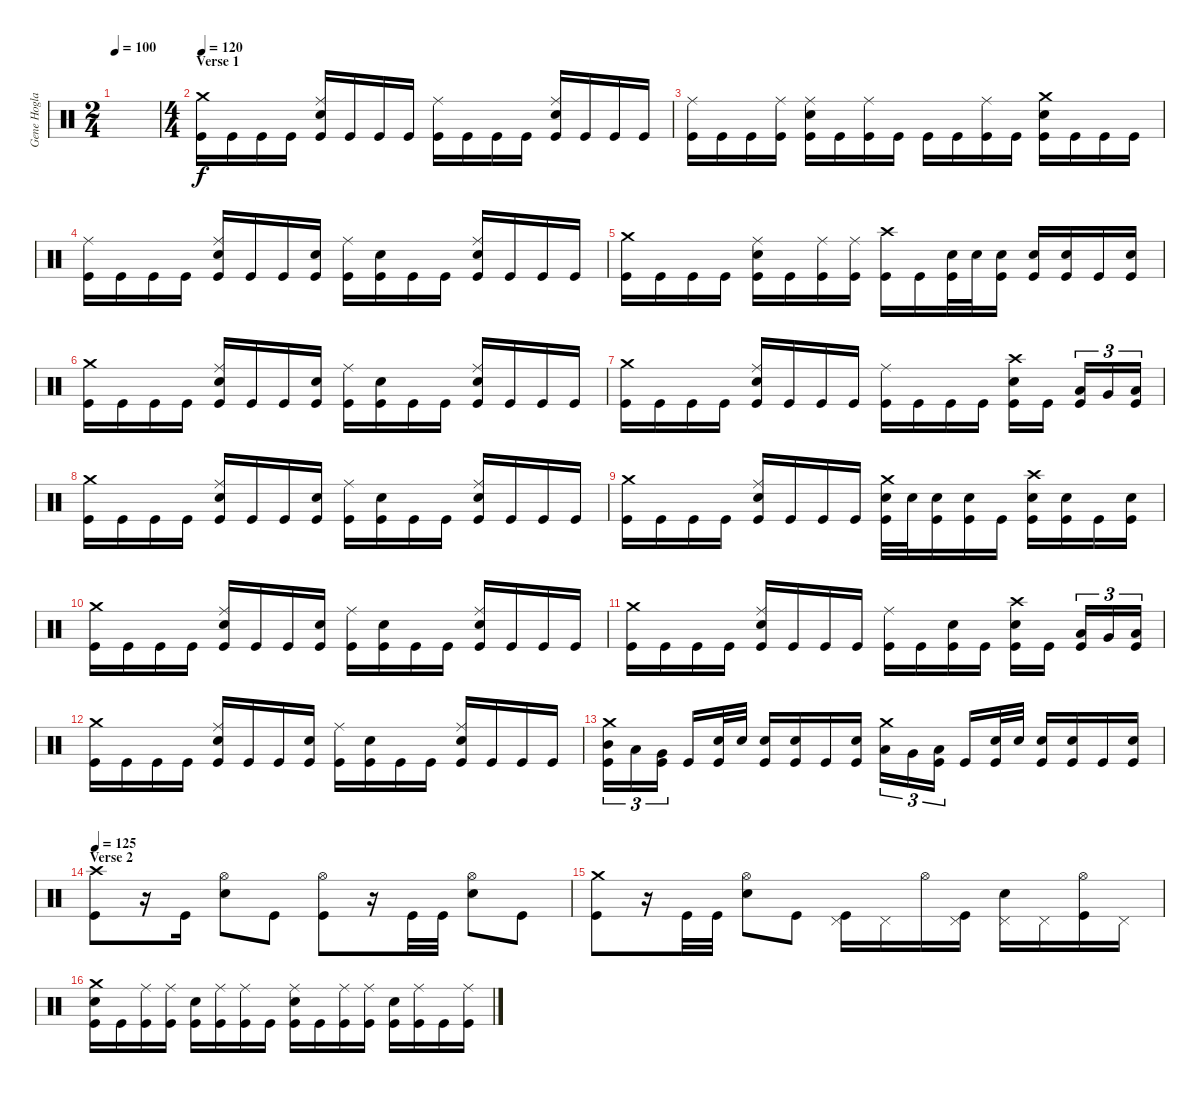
\track ("Gene Hoglan" "Gene Hogla") {instrument percussion}
\staff {score}
\articulation defaults
\ts (2 4)
\tempo 100
\clef neutral
\ks c
|
\ts (4 4)
\section ("" "Verse 1")
\tempo 120
("Crash medium (hit)" "Kick (hit)").16 "Kick (hit)".16 "Kick (hit)".16 "Kick (hit)".16 ("Ride (middle)" "Electric Snare (hit)" "Kick (hit)").16 "Kick (hit)".16 "Kick (hit)".16 "Kick (hit)".16 ("Ride (middle)" "Kick (hit)").16 "Kick (hit)".16 "Kick (hit)".16 "Kick (hit)".16 ("Ride (middle)" "Electric Snare (hit)" "Kick (hit)").16 "Kick (hit)".16 "Kick (hit)".16 "Kick (hit)".16 |
("Ride (middle)" "Kick (hit)").16 "Kick (hit)".16 "Kick (hit)".16 ("Ride (middle)" "Kick (hit)").16 ("Ride (middle)" "Electric Snare (hit)" "Kick (hit)").16 "Kick (hit)".16 ("Ride (middle)" "Kick (hit)").16 "Kick (hit)".16 "Kick (hit)".16 "Kick (hit)".16 ("Ride (middle)" "Kick (hit)").16 "Kick (hit)".16 ("Crash medium (hit)" "Electric Snare (hit)" "Kick (hit)").16 "Kick (hit)".16 "Kick (hit)".16 "Kick (hit)".16 |
("Ride (middle)" "Kick (hit)").16 "Kick (hit)".16 "Kick (hit)".16 "Kick (hit)".16 ("Ride (middle)" "Electric Snare (hit)" "Kick (hit)").16 "Kick (hit)".16 "Kick (hit)".16 ("Electric Snare (hit)" "Kick (hit)").16 ("Ride (middle)" "Kick (hit)").16 ("Electric Snare (hit)" "Kick (hit)").16 "Kick (hit)".16 "Kick (hit)".16 ("Ride (middle)" "Electric Snare (hit)" "Kick (hit)").16 "Kick (hit)".16 "Kick (hit)".16 "Kick (hit)".16 |
("Crash medium (hit)" "Kick (hit)").16 "Kick (hit)".16 "Kick (hit)".16 "Kick (hit)".16 ("Ride (middle)" "Electric Snare (hit)" "Kick (hit)").16 "Kick (hit)".16 ("Ride (middle)" "Kick (hit)").16 ("Ride (middle)" "Kick (hit)").16 ("Crash high (hit)" "Kick (hit)").16 "Kick (hit)".16 ("Electric Snare (hit)" "Kick (hit)").32 "Electric Snare (hit)".32 ("Electric Snare (hit)" "Kick (hit)").16 ("Electric Snare (hit)" "Kick (hit)").16 ("Electric Snare (hit)" "Kick (hit)").16 "Kick (hit)".16 ("Electric Snare (hit)" "Kick (hit)").16 |
("Crash medium (hit)" "Kick (hit)").16 "Kick (hit)".16 "Kick (hit)".16 "Kick (hit)".16 ("Ride (middle)" "Electric Snare (hit)" "Kick (hit)").16 "Kick (hit)".16 "Kick (hit)".16 ("Electric Snare (hit)" "Kick (hit)").16 ("Ride (middle)" "Kick (hit)").16 ("Electric Snare (hit)" "Kick (hit)").16 "Kick (hit)".16 "Kick (hit)".16 ("Ride (middle)" "Electric Snare (hit)" "Kick (hit)").16 "Kick (hit)".16 "Kick (hit)".16 "Kick (hit)".16 |
("Crash medium (hit)" "Kick (hit)").16 "Kick (hit)".16 "Kick (hit)".16 "Kick (hit)".16 ("Ride (middle)" "Electric Snare (hit)" "Kick (hit)").16 "Kick (hit)".16 "Kick (hit)".16 "Kick (hit)".16 ("Ride (middle)" "Kick (hit)").16 "Kick (hit)".16 "Kick (hit)".16 "Kick (hit)".16 ("Crash high (hit)" "Electric Snare (hit)" "Kick (hit)").16 "Kick (hit)".16 ("Low Tom (hit)" "Kick (hit)").16{tu (3 2)} "Very Low Tom (hit)".16{tu (3 2)} ("Low Floor Tom (hit)" "Kick (hit)").16{tu (3 2)} |
("Crash medium (hit)" "Kick (hit)").16 "Kick (hit)".16 "Kick (hit)".16 "Kick (hit)".16 ("Ride (middle)" "Electric Snare (hit)" "Kick (hit)").16 "Kick (hit)".16 "Kick (hit)".16 ("Electric Snare (hit)" "Kick (hit)").16 ("Ride (middle)" "Kick (hit)").16 ("Electric Snare (hit)" "Kick (hit)").16 "Kick (hit)".16 "Kick (hit)".16 ("Ride (middle)" "Electric Snare (hit)" "Kick (hit)").16 "Kick (hit)".16 "Kick (hit)".16 "Kick (hit)".16 |
("Crash medium (hit)" "Kick (hit)").16 "Kick (hit)".16 "Kick (hit)".16 "Kick (hit)".16 ("Ride (middle)" "Electric Snare (hit)" "Kick (hit)").16 "Kick (hit)".16 "Kick (hit)".16 "Kick (hit)".16 ("Crash medium (hit)" "Electric Snare (hit)" "Kick (hit)").32 "Electric Snare (hit)".32 ("Electric Snare (hit)" "Kick (hit)").16 ("Electric Snare (hit)" "Kick (hit)").16 "Kick (hit)".16 ("Crash high (hit)" "Electric Snare (hit)" "Kick (hit)").16 ("Electric Snare (hit)" "Kick (hit)").16 "Kick (hit)".16 ("Electric Snare (hit)" "Kick (hit)").16 |
("Crash medium (hit)" "Kick (hit)").16 "Kick (hit)".16 "Kick (hit)".16 "Kick (hit)".16 ("Ride (middle)" "Electric Snare (hit)" "Kick (hit)").16 "Kick (hit)".16 "Kick (hit)".16 ("Electric Snare (hit)" "Kick (hit)").16 ("Ride (middle)" "Kick (hit)").16 ("Electric Snare (hit)" "Kick (hit)").16 "Kick (hit)".16 "Kick (hit)".16 ("Ride (middle)" "Electric Snare (hit)" "Kick (hit)").16 "Kick (hit)".16 "Kick (hit)".16 "Kick (hit)".16 |
("Crash medium (hit)" "Kick (hit)").16 "Kick (hit)".16 "Kick (hit)".16 "Kick (hit)".16 ("Ride (middle)" "Electric Snare (hit)" "Kick (hit)").16 "Kick (hit)".16 "Kick (hit)".16 "Kick (hit)".16 ("Ride (middle)" "Kick (hit)").16 "Kick (hit)".16 ("Electric Snare (hit)" "Kick (hit)").16 "Kick (hit)".16 ("Crash high (hit)" "Electric Snare (hit)" "Kick (hit)").16 "Kick (hit)".16 ("Low Tom (hit)" "Kick (hit)").16{tu (3 2)} "Very Low Tom (hit)".16{tu (3 2)} ("Low Floor Tom (hit)" "Kick (hit)").16{tu (3 2)} |
("Crash medium (hit)" "Kick (hit)").16 "Kick (hit)".16 "Kick (hit)".16 "Kick (hit)".16 ("Ride (middle)" "Electric Snare (hit)" "Kick (hit)").16 "Kick (hit)".16 "Kick (hit)".16 ("Electric Snare (hit)" "Kick (hit)").16 ("Ride (middle)" "Kick (hit)").16 ("Electric Snare (hit)" "Kick (hit)").16 "Kick (hit)".16 "Kick (hit)".16 ("Ride (middle)" "Electric Snare (hit)" "Kick (hit)").16 "Kick (hit)".16 "Kick (hit)".16 "Kick (hit)".16 |
("Crash medium (hit)" "Mid Tom (hit)" "Kick (hit)").16{tu (3 2)} "Low Tom (hit)".16{tu (3 2)} ("Very Low Tom (hit)" "Kick (hit)").16{tu (3 2)} "Kick (hit)".16 ("Electric Snare (hit)" "Kick (hit)").32 "Electric Snare (hit)".32 ("Electric Snare (hit)" "Kick (hit)").16 ("Electric Snare (hit)" "Kick (hit)").16 "Kick (hit)".16 ("Electric Snare (hit)" "Kick (hit)").16 ("Crash medium (hit)" "Low Tom (hit)").16{tu (3 2)} "Very Low Tom (hit)".16{tu (3 2)} ("Low Floor Tom (hit)" "Kick (hit)").16{tu (3 2)} "Kick (hit)".16 ("Electric Snare (hit)" "Kick (hit)").32 "Electric Snare (hit)".32 ("Electric Snare (hit)" "Kick (hit)").16 ("Electric Snare (hit)" "Kick (hit)").16 "Kick (hit)".16 ("Electric Snare (hit)" "Kick (hit)").16 |
\section ("" "Verse 2")
\tempo 125
("Crash high (hit)" "Kick (hit)").8 r.16 "Kick (hit)".16 ("Hi-Hat (open)" "Electric Snare (hit)").8 "Kick (hit)".8 ("Hi-Hat (open)" "Kick (hit)").8 r.16 "Kick (hit)".32 "Kick (hit)".32 ("Hi-Hat (open)" "Electric Snare (hit)").8 "Kick (hit)".8 |
("Crash medium (hit)" "Kick (hit)").8 r.16 "Kick (hit)".32 "Kick (hit)".32 ("Hi-Hat (open)" "Electric Snare (hit)").8 "Kick (hit)".8 ("Pedal Hi-Hat (hit)" "Kick (hit)").16 "Pedal Hi-Hat (hit)".16 "Hi-Hat (open)".16 ("Pedal Hi-Hat (hit)" "Kick (hit)").16 ("Pedal Hi-Hat (hit)" "Electric Snare (hit)").16 "Pedal Hi-Hat (hit)".16 ("Hi-Hat (open)" "Kick (hit)").16 "Pedal Hi-Hat (hit)".16 |
("Crash medium (hit)" "Electric Snare (hit)" "Kick (hit)").16 "Kick (hit)".16 ("Ride (middle)" "Kick (hit)").16 ("Ride (middle)" "Kick (hit)").16 ("Electric Snare (hit)" "Kick (hit)").16 ("Ride (middle)" "Kick (hit)").16 ("Ride (middle)" "Kick (hit)").16 "Kick (hit)".16 ("Ride (middle)" "Electric Snare (hit)" "Kick (hit)").16 "Kick (hit)".16 ("Ride (middle)" "Kick (hit)").16 ("Ride (middle)" "Kick (hit)").16 ("Electric Snare (hit)" "Kick (hit)").16 ("Ride (middle)" "Kick (hit)").16 "Kick (hit)".16 ("Ride (middle)" "Kick (hit)").16
